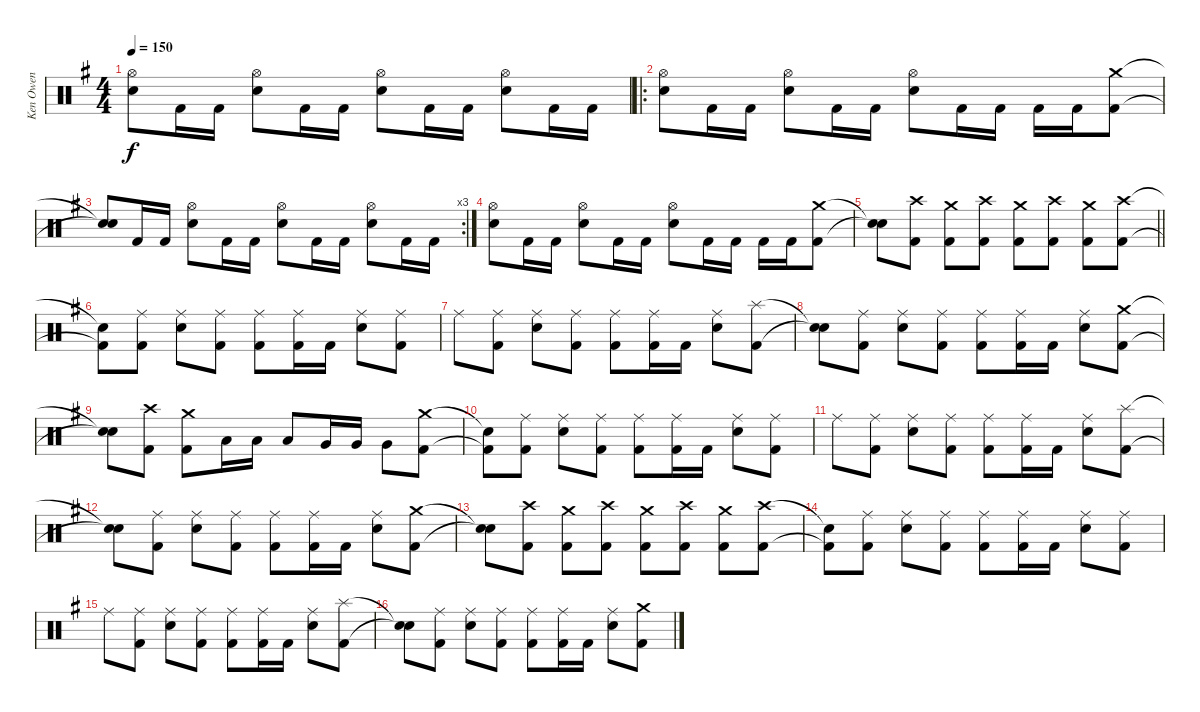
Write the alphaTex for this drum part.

\track ("Ken Owen" "Ken Owen") {instrument percussion}
\staff {score}
\articulation defaults
\ts (4 4)
\tempo 150
\clef neutral
\ks g
("Hi-Hat (open)" "Snare (hit) 2").8{dy f} "Kick (hit) 2".16 "Kick (hit) 2".16 ("Hi-Hat (open)" "Snare (hit) 2").8 "Kick (hit) 2".16 "Kick (hit) 2".16 ("Hi-Hat (open)" "Snare (hit) 2").8 "Kick (hit) 2".16 "Kick (hit) 2".16 ("Hi-Hat (open)" "Snare (hit) 2").8 "Kick (hit) 2".16 "Kick (hit) 2".16 |
\ro
("Hi-Hat (open)" "Snare (hit) 2").8 "Kick (hit) 2".16 "Kick (hit) 2".16 ("Hi-Hat (open)" "Snare (hit) 2").8 "Kick (hit) 2".16 "Kick (hit) 2".16 ("Hi-Hat (open)" "Snare (hit) 2").8 "Kick (hit) 2".16 "Kick (hit) 2".16 "Kick (hit) 2".16 "Kick (hit) 2".16 ("Crash medium (hit)" "Kick (hit) 2").8 |
\rc 3
("Snare (hit)"{t} "Snare (hit)"{t}).8 "Kick (hit) 2".16 "Kick (hit) 2".16 ("Hi-Hat (open)" "Snare (hit) 2").8 "Kick (hit) 2".16 "Kick (hit) 2".16 ("Hi-Hat (open)" "Snare (hit) 2").8 "Kick (hit) 2".16 "Kick (hit) 2".16 ("Hi-Hat (open)" "Snare (hit) 2").8 "Kick (hit) 2".16 "Kick (hit) 2".16 |
("Hi-Hat (open)" "Snare (hit) 2").8 "Kick (hit) 2".16 "Kick (hit) 2".16 ("Hi-Hat (open)" "Snare (hit) 2").8 "Kick (hit) 2".16 "Kick (hit) 2".16 ("Hi-Hat (open)" "Snare (hit) 2").8 "Kick (hit) 2".16 "Kick (hit) 2".16 "Kick (hit) 2".16 "Kick (hit) 2".16 ("Crash medium (hit)" "Kick (hit) 2").8 |
\barLineRight lightlight
("Snare (hit)"{t} "Snare (hit)"{t}).8 ("Crash high (hit)" "Kick (hit) 2").8 ("Crash medium (hit)" "Kick (hit) 2").8 ("Crash high (hit)" "Kick (hit) 2").8 ("Crash medium (hit)" "Kick (hit) 2").8 ("Crash high (hit)" "Kick (hit) 2").8 ("Crash medium (hit)" "Kick (hit) 2").8 ("Crash high (hit)" "Kick (hit) 2").8 |
("Snare (hit)"{t} "Kick (hit) 2"{t}).8 ("Ride (middle)" "Kick (hit) 2").8 ("Ride (middle)" "Snare (hit) 2").8 ("Ride (middle)" "Kick (hit) 2").8 ("Ride (middle)" "Kick (hit) 2").8 ("Ride (middle)" "Kick (hit) 2").16 "Kick (hit) 2".16 ("Ride (middle)" "Snare (hit) 2").8 ("Ride (middle)" "Kick (hit) 2").8 |
"Ride (middle)".8 ("Ride (middle)" "Kick (hit) 2").8 ("Ride (middle)" "Snare (hit) 2").8 ("Ride (middle)" "Kick (hit) 2").8 ("Ride (middle)" "Kick (hit) 2").8 ("Ride (middle)" "Kick (hit) 2").16 "Kick (hit) 2".16 ("Ride (middle)" "Snare (hit) 2").8 ("Splash (hit)" "Kick (hit) 2").8 |
("Snare (hit)"{t} "Snare (hit)"{t}).8 ("Ride (middle)" "Kick (hit) 2").8 ("Ride (middle)" "Snare (hit) 2").8 ("Ride (middle)" "Kick (hit) 2").8 ("Ride (middle)" "Kick (hit) 2").8 ("Ride (middle)" "Kick (hit) 2").16 "Kick (hit) 2".16 ("Ride (middle)" "Snare (hit) 2").8 ("Crash medium (hit)" "Kick (hit) 2").8 |
("Snare (hit)"{t} "Snare (hit)"{t}).8 ("Crash high (hit)" "Kick (hit) 2").8 ("Crash medium (hit)" "Kick (hit) 2").8 "Low Tom (hit)".16 "Low Tom (hit)".16 "Low Tom (hit)".8 "Very Low Tom (hit)".16 "Very Low Tom (hit)".16 "Very Low Tom (hit)".8 ("Crash medium (hit)" "Kick (hit) 2").8 |
("Snare (hit)"{t} "Kick (hit) 2"{t}).8 ("Ride (middle)" "Kick (hit) 2").8 ("Ride (middle)" "Snare (hit) 2").8 ("Ride (middle)" "Kick (hit) 2").8 ("Ride (middle)" "Kick (hit) 2").8 ("Ride (middle)" "Kick (hit) 2").16 "Kick (hit) 2".16 ("Ride (middle)" "Snare (hit) 2").8 ("Ride (middle)" "Kick (hit) 2").8 |
"Ride (middle)".8 ("Ride (middle)" "Kick (hit) 2").8 ("Ride (middle)" "Snare (hit) 2").8 ("Ride (middle)" "Kick (hit) 2").8 ("Ride (middle)" "Kick (hit) 2").8 ("Ride (middle)" "Kick (hit) 2").16 "Kick (hit) 2".16 ("Ride (middle)" "Snare (hit) 2").8 ("Splash (hit)" "Kick (hit) 2").8 |
("Snare (hit)"{t} "Snare (hit)"{t}).8 ("Ride (middle)" "Kick (hit) 2").8 ("Ride (middle)" "Snare (hit) 2").8 ("Ride (middle)" "Kick (hit) 2").8 ("Ride (middle)" "Kick (hit) 2").8 ("Ride (middle)" "Kick (hit) 2").16 "Kick (hit) 2".16 ("Ride (middle)" "Snare (hit) 2").8 ("Crash medium (hit)" "Kick (hit) 2").8 |
("Snare (hit)"{t} "Snare (hit)"{t}).8 ("Crash high (hit)" "Kick (hit) 2").8 ("Crash medium (hit)" "Kick (hit) 2").8 ("Crash high (hit)" "Kick (hit) 2").8 ("Crash medium (hit)" "Kick (hit) 2").8 ("Crash high (hit)" "Kick (hit) 2").8 ("Crash medium (hit)" "Kick (hit) 2").8 ("Crash high (hit)" "Kick (hit) 2").8 |
("Snare (hit)"{t} "Kick (hit) 2"{t}).8 ("Ride (middle)" "Kick (hit) 2").8 ("Ride (middle)" "Snare (hit) 2").8 ("Ride (middle)" "Kick (hit) 2").8 ("Ride (middle)" "Kick (hit) 2").8 ("Ride (middle)" "Kick (hit) 2").16 "Kick (hit) 2".16 ("Ride (middle)" "Snare (hit) 2").8 ("Ride (middle)" "Kick (hit) 2").8 |
"Ride (middle)".8 ("Ride (middle)" "Kick (hit) 2").8 ("Ride (middle)" "Snare (hit) 2").8 ("Ride (middle)" "Kick (hit) 2").8 ("Ride (middle)" "Kick (hit) 2").8 ("Ride (middle)" "Kick (hit) 2").16 "Kick (hit) 2".16 ("Ride (middle)" "Snare (hit) 2").8 ("Splash (hit)" "Kick (hit) 2").8 |
("Snare (hit)"{t} "Snare (hit)"{t}).8 ("Ride (middle)" "Kick (hit) 2").8 ("Ride (middle)" "Snare (hit) 2").8 ("Ride (middle)" "Kick (hit) 2").8 ("Ride (middle)" "Kick (hit) 2").8 ("Ride (middle)" "Kick (hit) 2").16 "Kick (hit) 2".16 ("Ride (middle)" "Snare (hit) 2").8 ("Crash medium (hit)" "Kick (hit) 2").8
